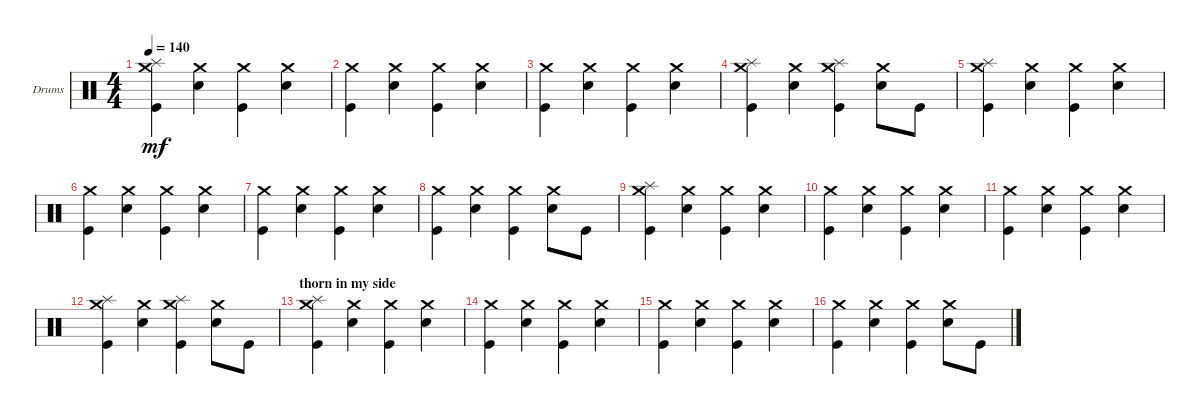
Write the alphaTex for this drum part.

\defaultSystemsLayout 4
\bracketExtendMode groupsimilarinstruments
\firstSystemTrackNameOrientation horizontal
\otherSystemsTrackNameOrientation horizontal
\track ("Drumkit" "Drums") {instrument percussion}
\staff {score}
\articulation defaults
\ts (4 4)
\tempo 140
\clef neutral
\ks c
("Splash (hit)" "Kick (hit)" "Crash medium (hit)").4{dy mf} ("Snare (hit) 2" "Crash medium (hit)").4 ("Kick (hit)" "Crash medium (hit)").4 ("Snare (hit) 2" "Crash medium (hit)").4 |
("Kick (hit)" "Crash medium (hit)").4 ("Snare (hit) 2" "Crash medium (hit)").4 ("Kick (hit)" "Crash medium (hit)").4 ("Snare (hit) 2" "Crash medium (hit)").4 |
("Kick (hit)" "Crash medium (hit)").4 ("Snare (hit) 2" "Crash medium (hit)").4 ("Kick (hit)" "Crash medium (hit)").4 ("Snare (hit) 2" "Crash medium (hit)").4 |
("Kick (hit)" "Crash medium (hit)" "Splash (hit)").4 ("Snare (hit) 2" "Crash medium (hit)").4 ("Kick (hit)" "Crash medium (hit)" "Splash (hit)").4 ("Snare (hit) 2" "Crash medium (hit)").8 "Kick (hit)".8 |
("Splash (hit)" "Kick (hit)" "Crash medium (hit)").4 ("Snare (hit) 2" "Crash medium (hit)").4 ("Kick (hit)" "Crash medium (hit)").4 ("Snare (hit) 2" "Crash medium (hit)").4 |
("Kick (hit)" "Crash medium (hit)").4 ("Snare (hit) 2" "Crash medium (hit)").4 ("Kick (hit)" "Crash medium (hit)").4 ("Snare (hit) 2" "Crash medium (hit)").4 |
("Kick (hit)" "Crash medium (hit)").4 ("Snare (hit) 2" "Crash medium (hit)").4 ("Kick (hit)" "Crash medium (hit)").4 ("Snare (hit) 2" "Crash medium (hit)").4 |
("Kick (hit)" "Crash medium (hit)").4 ("Snare (hit) 2" "Crash medium (hit)").4 ("Kick (hit)" "Crash medium (hit)").4 ("Snare (hit) 2" "Crash medium (hit)").8 "Kick (hit)".8 |
("Splash (hit)" "Kick (hit)" "Crash medium (hit)").4 ("Snare (hit) 2" "Crash medium (hit)").4 ("Kick (hit)" "Crash medium (hit)").4 ("Snare (hit) 2" "Crash medium (hit)").4 |
("Kick (hit)" "Crash medium (hit)").4 ("Snare (hit) 2" "Crash medium (hit)").4 ("Kick (hit)" "Crash medium (hit)").4 ("Snare (hit) 2" "Crash medium (hit)").4 |
("Kick (hit)" "Crash medium (hit)").4 ("Snare (hit) 2" "Crash medium (hit)").4 ("Kick (hit)" "Crash medium (hit)").4 ("Snare (hit) 2" "Crash medium (hit)").4 |
("Kick (hit)" "Crash medium (hit)" "Splash (hit)").4 ("Snare (hit) 2" "Crash medium (hit)").4 ("Kick (hit)" "Crash medium (hit)" "Splash (hit)").4 ("Snare (hit) 2" "Crash medium (hit)").8 "Kick (hit)".8 |
\section ("" "thorn in my side")
("Splash (hit)" "Kick (hit)" "Crash medium (hit)").4 ("Snare (hit) 2" "Crash medium (hit)").4 ("Kick (hit)" "Crash medium (hit)").4 ("Snare (hit) 2" "Crash medium (hit)").4 |
("Kick (hit)" "Crash medium (hit)").4 ("Snare (hit) 2" "Crash medium (hit)").4 ("Kick (hit)" "Crash medium (hit)").4 ("Snare (hit) 2" "Crash medium (hit)").4 |
("Kick (hit)" "Crash medium (hit)").4 ("Snare (hit) 2" "Crash medium (hit)").4 ("Kick (hit)" "Crash medium (hit)").4 ("Snare (hit) 2" "Crash medium (hit)").4 |
("Kick (hit)" "Crash medium (hit)").4 ("Snare (hit) 2" "Crash medium (hit)").4 ("Kick (hit)" "Crash medium (hit)").4 ("Snare (hit) 2" "Crash medium (hit)").8 "Kick (hit)".8
